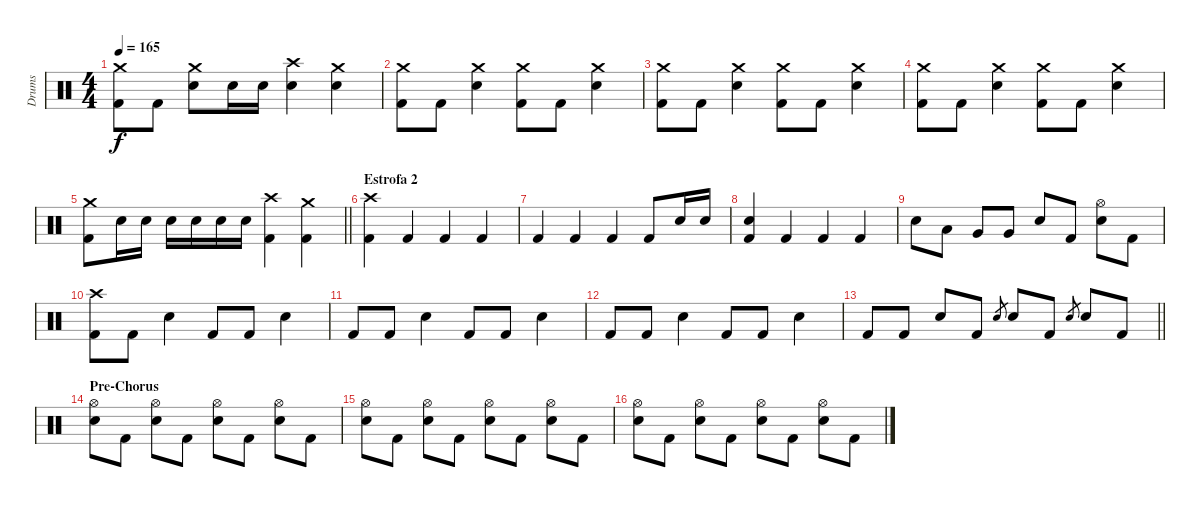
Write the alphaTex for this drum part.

\track ("Drums" "Drums") {instrument percussion}
\staff {score}
\articulation defaults
\ts (4 4)
\tempo 165
\clef neutral
\ks c
("Crash medium (hit)" "Kick (hit) 2").8{dy f} "Kick (hit) 2".8 ("Crash medium (hit)" "Electric Snare (hit)").8 "Electric Snare (hit)".16 "Electric Snare (hit)".16 ("Crash high (hit)" "Electric Snare (hit)").4 ("Crash medium (hit)" "Electric Snare (hit)").4 |
("Crash medium (hit)" "Kick (hit) 2").8 "Kick (hit) 2".8 ("Crash medium (hit)" "Electric Snare (hit)").4 ("Crash medium (hit)" "Kick (hit) 2").8 "Kick (hit) 2".8 ("Crash medium (hit)" "Electric Snare (hit)").4 |
("Crash medium (hit)" "Kick (hit) 2").8 "Kick (hit) 2".8 ("Crash medium (hit)" "Electric Snare (hit)").4 ("Crash medium (hit)" "Kick (hit) 2").8 "Kick (hit) 2".8 ("Crash medium (hit)" "Electric Snare (hit)").4 |
("Crash medium (hit)" "Kick (hit) 2").8 "Kick (hit) 2".8 ("Crash medium (hit)" "Electric Snare (hit)").4 ("Crash medium (hit)" "Kick (hit) 2").8 "Kick (hit) 2".8 ("Crash medium (hit)" "Electric Snare (hit)").4 |
\barLineRight lightlight
("Crash medium (hit)" "Kick (hit) 2").8 "Electric Snare (hit)".16 "Electric Snare (hit)".16 "Electric Snare (hit)".16 "Electric Snare (hit)".16 "Electric Snare (hit)".16 "Electric Snare (hit)".16 ("Crash high (hit)" "Kick (hit) 2").4 ("Crash medium (hit)" "Kick (hit) 2").4 |
\section ("" "Estrofa 2")
("Crash high (hit)" "Kick (hit) 2").4 "Kick (hit) 2".4 "Kick (hit) 2".4 "Kick (hit) 2".4 |
"Kick (hit) 2".4 "Kick (hit) 2".4 "Kick (hit) 2".4 "Kick (hit) 2".8 "Electric Snare (hit)".16 "Electric Snare (hit)".16 |
("Electric Snare (hit)" "Kick (hit) 2").4 "Kick (hit) 2".4 "Kick (hit) 2".4 "Kick (hit) 2".4 |
"Electric Snare (hit)".8 "Low Tom (hit)".8 "Very Low Tom (hit)".8 "Very Low Tom (hit)".8 "Electric Snare (hit)".8 "Kick (hit) 2".8 ("Hi-Hat (open)" "Electric Snare (hit)").8 "Kick (hit) 2".8 |
("Crash high (hit)" "Kick (hit) 2").8 "Kick (hit) 2".8 "Electric Snare (hit)".4 "Kick (hit) 2".8 "Kick (hit) 2".8 "Electric Snare (hit)".4 |
"Kick (hit) 2".8 "Kick (hit) 2".8 "Electric Snare (hit)".4 "Kick (hit) 2".8 "Kick (hit) 2".8 "Electric Snare (hit)".4 |
"Kick (hit) 2".8 "Kick (hit) 2".8 "Electric Snare (hit)".4 "Kick (hit) 2".8 "Kick (hit) 2".8 "Electric Snare (hit)".4 |
\barLineRight lightlight "Kick (hit) 2".8 "Kick (hit) 2".8 "Electric Snare (hit)".8 "Kick (hit) 2".8 "Electric Snare (hit)".8{gr} "Electric Snare (hit)".8 "Kick (hit) 2".8 "Electric Snare (hit)".8{gr} "Electric Snare (hit)".8 "Kick (hit) 2".8
|
\section ("" "Pre-Chorus")
("Hi-Hat (open)" "Electric Snare (hit)").8 "Kick (hit) 2".8 ("Hi-Hat (open)" "Electric Snare (hit)").8 "Kick (hit) 2".8 ("Hi-Hat (open)" "Electric Snare (hit)").8 "Kick (hit) 2".8 ("Hi-Hat (open)" "Electric Snare (hit)").8 "Kick (hit) 2".8 |
("Hi-Hat (open)" "Electric Snare (hit)").8 "Kick (hit) 2".8 ("Hi-Hat (open)" "Electric Snare (hit)").8 "Kick (hit) 2".8 ("Hi-Hat (open)" "Electric Snare (hit)").8 "Kick (hit) 2".8 ("Hi-Hat (open)" "Electric Snare (hit)").8 "Kick (hit) 2".8 |
("Hi-Hat (open)" "Electric Snare (hit)").8 "Kick (hit) 2".8 ("Hi-Hat (open)" "Electric Snare (hit)").8 "Kick (hit) 2".8 ("Hi-Hat (open)" "Electric Snare (hit)").8 "Kick (hit) 2".8 ("Hi-Hat (open)" "Electric Snare (hit)").8 "Kick (hit) 2".8
